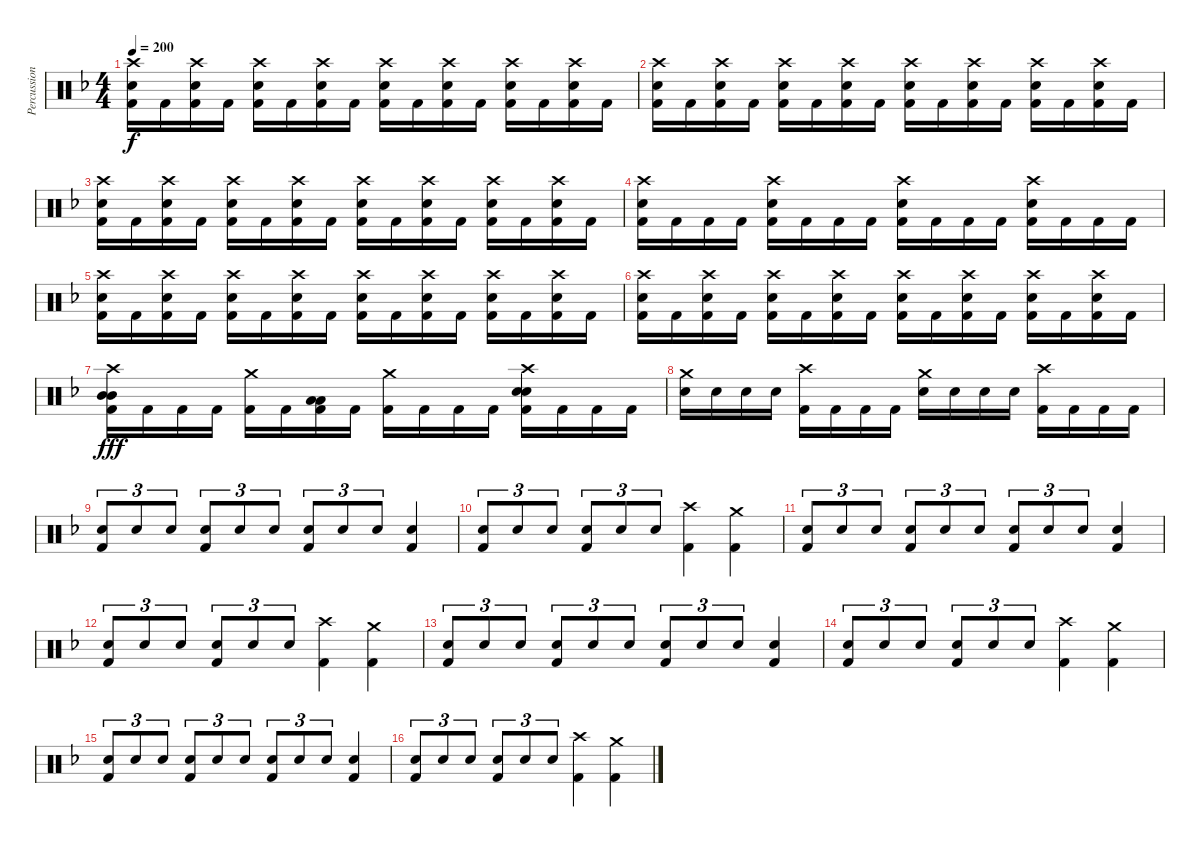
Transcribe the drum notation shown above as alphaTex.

\track ("Percussion" "Percussion") {instrument percussion}
\staff {score}
\articulation defaults
\ts (4 4)
\tempo 200
\clef neutral
\ks f
("Crash high (hit)" "Electric Snare (hit)" "Kick (hit) 2").16{dy f} "Kick (hit) 2".16 ("Crash high (hit)" "Electric Snare (hit)" "Kick (hit) 2").16 "Kick (hit) 2".16 ("Crash high (hit)" "Electric Snare (hit)" "Kick (hit) 2").16 "Kick (hit) 2".16 ("Crash high (hit)" "Electric Snare (hit)" "Kick (hit) 2").16 "Kick (hit) 2".16 ("Crash high (hit)" "Electric Snare (hit)" "Kick (hit) 2").16 "Kick (hit) 2".16 ("Crash high (hit)" "Electric Snare (hit)" "Kick (hit) 2").16 "Kick (hit) 2".16 ("Crash high (hit)" "Electric Snare (hit)" "Kick (hit) 2").16 "Kick (hit) 2".16 ("Crash high (hit)" "Electric Snare (hit)" "Kick (hit) 2").16 "Kick (hit) 2".16 |
("Crash high (hit)" "Electric Snare (hit)" "Kick (hit) 2").16 "Kick (hit) 2".16 ("Crash high (hit)" "Electric Snare (hit)" "Kick (hit) 2").16 "Kick (hit) 2".16 ("Crash high (hit)" "Electric Snare (hit)" "Kick (hit) 2").16 "Kick (hit) 2".16 ("Crash high (hit)" "Electric Snare (hit)" "Kick (hit) 2").16 "Kick (hit) 2".16 ("Crash high (hit)" "Electric Snare (hit)" "Kick (hit) 2").16 "Kick (hit) 2".16 ("Crash high (hit)" "Electric Snare (hit)" "Kick (hit) 2").16 "Kick (hit) 2".16 ("Crash high (hit)" "Electric Snare (hit)" "Kick (hit) 2").16 "Kick (hit) 2".16 ("Crash high (hit)" "Electric Snare (hit)" "Kick (hit) 2").16 "Kick (hit) 2".16 |
("Crash high (hit)" "Electric Snare (hit)" "Kick (hit) 2").16 "Kick (hit) 2".16 ("Crash high (hit)" "Electric Snare (hit)" "Kick (hit) 2").16 "Kick (hit) 2".16 ("Crash high (hit)" "Electric Snare (hit)" "Kick (hit) 2").16 "Kick (hit) 2".16 ("Crash high (hit)" "Electric Snare (hit)" "Kick (hit) 2").16 "Kick (hit) 2".16 ("Crash high (hit)" "Electric Snare (hit)" "Kick (hit) 2").16 "Kick (hit) 2".16 ("Crash high (hit)" "Electric Snare (hit)" "Kick (hit) 2").16 "Kick (hit) 2".16 ("Crash high (hit)" "Electric Snare (hit)" "Kick (hit) 2").16 "Kick (hit) 2".16 ("Crash high (hit)" "Electric Snare (hit)" "Kick (hit) 2").16 "Kick (hit) 2".16 |
("Crash high (hit)" "Electric Snare (hit)" "Kick (hit) 2").16 "Kick (hit) 2".16 "Kick (hit) 2".16 "Kick (hit) 2".16 ("Crash high (hit)" "Electric Snare (hit)" "Kick (hit) 2").16 "Kick (hit) 2".16 "Kick (hit) 2".16 "Kick (hit) 2".16 ("Crash high (hit)" "Electric Snare (hit)" "Kick (hit) 2").16 "Kick (hit) 2".16 "Kick (hit) 2".16 "Kick (hit) 2".16 ("Crash high (hit)" "Electric Snare (hit)" "Kick (hit) 2").16 "Kick (hit) 2".16 "Kick (hit) 2".16 "Kick (hit) 2".16 |
("Crash high (hit)" "Electric Snare (hit)" "Kick (hit) 2").16 "Kick (hit) 2".16 ("Crash high (hit)" "Electric Snare (hit)" "Kick (hit) 2").16 "Kick (hit) 2".16 ("Crash high (hit)" "Electric Snare (hit)" "Kick (hit) 2").16 "Kick (hit) 2".16 ("Crash high (hit)" "Electric Snare (hit)" "Kick (hit) 2").16 "Kick (hit) 2".16 ("Crash high (hit)" "Electric Snare (hit)" "Kick (hit) 2").16 "Kick (hit) 2".16 ("Crash high (hit)" "Electric Snare (hit)" "Kick (hit) 2").16 "Kick (hit) 2".16 ("Crash high (hit)" "Electric Snare (hit)" "Kick (hit) 2").16 "Kick (hit) 2".16 ("Crash high (hit)" "Electric Snare (hit)" "Kick (hit) 2").16 "Kick (hit) 2".16 |
("Crash high (hit)" "Electric Snare (hit)" "Kick (hit) 2").16 "Kick (hit) 2".16 ("Crash high (hit)" "Electric Snare (hit)" "Kick (hit) 2").16 "Kick (hit) 2".16 ("Crash high (hit)" "Electric Snare (hit)" "Kick (hit) 2").16 "Kick (hit) 2".16 ("Crash high (hit)" "Electric Snare (hit)" "Kick (hit) 2").16 "Kick (hit) 2".16 ("Crash high (hit)" "Electric Snare (hit)" "Kick (hit) 2").16 "Kick (hit) 2".16 ("Crash high (hit)" "Electric Snare (hit)" "Kick (hit) 2").16 "Kick (hit) 2".16 ("Crash high (hit)" "Electric Snare (hit)" "Kick (hit) 2").16 "Kick (hit) 2".16 ("Crash high (hit)" "Electric Snare (hit)" "Kick (hit) 2").16 "Kick (hit) 2".16 |
("Crash high (hit)" "Mid Tom (hit)" "Mid Tom (hit)" "Kick (hit) 2").16{dy fff} "Kick (hit) 2".16 "Kick (hit) 2".16 "Kick (hit) 2".16 ("Crash medium (hit)" "Kick (hit) 2").16 "Kick (hit) 2".16 ("Low Tom (hit)" "Low Tom (hit)" "Kick (hit) 2").16 "Kick (hit) 2".16 ("Crash medium (hit)" "Kick (hit) 2").16 "Kick (hit) 2".16 "Kick (hit) 2".16 "Kick (hit) 2".16 ("Crash high (hit)" "Electric Snare (hit)" "Electric Snare (hit)" "Kick (hit) 2").16 "Kick (hit) 2".16 "Kick (hit) 2".16 "Kick (hit) 2".16 |
("Crash medium (hit)" "Electric Snare (hit)").16 "Electric Snare (hit)".16 "Electric Snare (hit)".16 "Electric Snare (hit)".16 ("Crash high (hit)" "Kick (hit) 2").16 "Kick (hit) 2".16 "Kick (hit) 2".16 "Kick (hit) 2".16 ("Crash medium (hit)" "Electric Snare (hit)").16 "Electric Snare (hit)".16 "Electric Snare (hit)".16 "Electric Snare (hit)".16 ("Crash high (hit)" "Kick (hit) 2").16 "Kick (hit) 2".16 "Kick (hit) 2".16 "Kick (hit) 2".16 |
("Electric Snare (hit)" "Kick (hit) 2").8{tu (3 2)} "Electric Snare (hit)".8{tu (3 2)} "Electric Snare (hit)".8{tu (3 2)} ("Electric Snare (hit)" "Kick (hit) 2").8{tu (3 2)} "Electric Snare (hit)".8{tu (3 2)} "Electric Snare (hit)".8{tu (3 2)} ("Electric Snare (hit)" "Kick (hit) 2").8{tu (3 2)} "Electric Snare (hit)".8{tu (3 2)} "Electric Snare (hit)".8{tu (3 2)} ("Electric Snare (hit)" "Kick (hit) 2").4 |
("Electric Snare (hit)" "Kick (hit) 2").8{tu (3 2)} "Electric Snare (hit)".8{tu (3 2)} "Electric Snare (hit)".8{tu (3 2)} ("Electric Snare (hit)" "Kick (hit) 2").8{tu (3 2)} "Electric Snare (hit)".8{tu (3 2)} "Electric Snare (hit)".8{tu (3 2)} ("Crash high (hit)" "Kick (hit) 2").4 ("Crash medium (hit)" "Kick (hit) 2").4 |
("Electric Snare (hit)" "Kick (hit) 2").8{tu (3 2)} "Electric Snare (hit)".8{tu (3 2)} "Electric Snare (hit)".8{tu (3 2)} ("Electric Snare (hit)" "Kick (hit) 2").8{tu (3 2)} "Electric Snare (hit)".8{tu (3 2)} "Electric Snare (hit)".8{tu (3 2)} ("Electric Snare (hit)" "Kick (hit) 2").8{tu (3 2)} "Electric Snare (hit)".8{tu (3 2)} "Electric Snare (hit)".8{tu (3 2)} ("Electric Snare (hit)" "Kick (hit) 2").4 |
("Electric Snare (hit)" "Kick (hit) 2").8{tu (3 2)} "Electric Snare (hit)".8{tu (3 2)} "Electric Snare (hit)".8{tu (3 2)} ("Electric Snare (hit)" "Kick (hit) 2").8{tu (3 2)} "Electric Snare (hit)".8{tu (3 2)} "Electric Snare (hit)".8{tu (3 2)} ("Crash high (hit)" "Kick (hit) 2").4 ("Crash medium (hit)" "Kick (hit) 2").4 |
("Electric Snare (hit)" "Kick (hit) 2").8{tu (3 2)} "Electric Snare (hit)".8{tu (3 2)} "Electric Snare (hit)".8{tu (3 2)} ("Electric Snare (hit)" "Kick (hit) 2").8{tu (3 2)} "Electric Snare (hit)".8{tu (3 2)} "Electric Snare (hit)".8{tu (3 2)} ("Electric Snare (hit)" "Kick (hit) 2").8{tu (3 2)} "Electric Snare (hit)".8{tu (3 2)} "Electric Snare (hit)".8{tu (3 2)} ("Electric Snare (hit)" "Kick (hit) 2").4 |
("Electric Snare (hit)" "Kick (hit) 2").8{tu (3 2)} "Electric Snare (hit)".8{tu (3 2)} "Electric Snare (hit)".8{tu (3 2)} ("Electric Snare (hit)" "Kick (hit) 2").8{tu (3 2)} "Electric Snare (hit)".8{tu (3 2)} "Electric Snare (hit)".8{tu (3 2)} ("Crash high (hit)" "Kick (hit) 2").4 ("Crash medium (hit)" "Kick (hit) 2").4 |
("Electric Snare (hit)" "Kick (hit) 2").8{tu (3 2)} "Electric Snare (hit)".8{tu (3 2)} "Electric Snare (hit)".8{tu (3 2)} ("Electric Snare (hit)" "Kick (hit) 2").8{tu (3 2)} "Electric Snare (hit)".8{tu (3 2)} "Electric Snare (hit)".8{tu (3 2)} ("Electric Snare (hit)" "Kick (hit) 2").8{tu (3 2)} "Electric Snare (hit)".8{tu (3 2)} "Electric Snare (hit)".8{tu (3 2)} ("Electric Snare (hit)" "Kick (hit) 2").4 |
("Electric Snare (hit)" "Kick (hit) 2").8{tu (3 2)} "Electric Snare (hit)".8{tu (3 2)} "Electric Snare (hit)".8{tu (3 2)} ("Electric Snare (hit)" "Kick (hit) 2").8{tu (3 2)} "Electric Snare (hit)".8{tu (3 2)} "Electric Snare (hit)".8{tu (3 2)} ("Crash high (hit)" "Kick (hit) 2").4 ("Crash medium (hit)" "Kick (hit) 2").4
